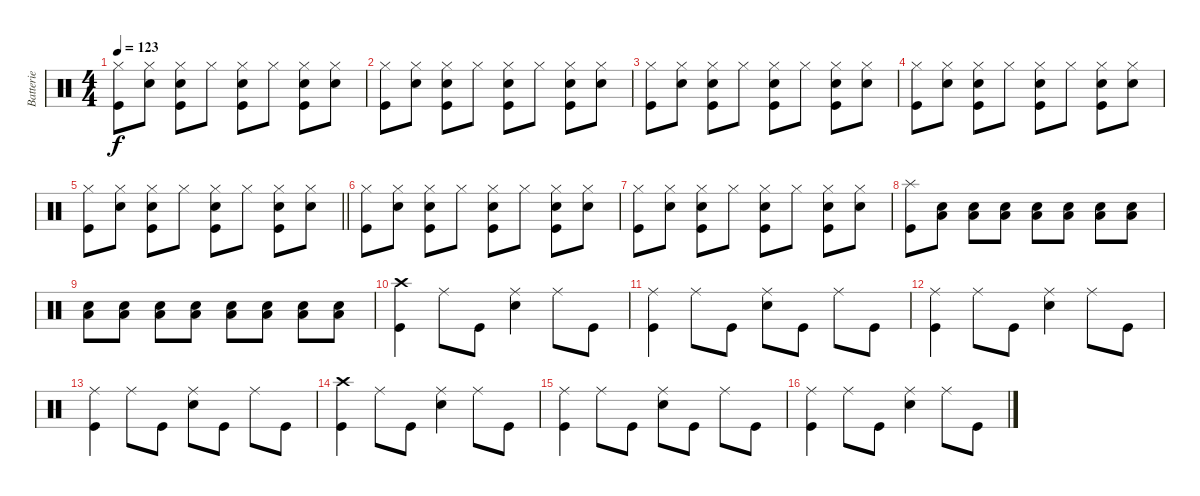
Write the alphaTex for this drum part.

\track ("Batterie" "Batterie") {instrument percussion}
\staff {score}
\articulation defaults
\ts (4 4)
\tempo 123
\clef neutral
\ks c
("Hi-Hat (closed)" "Kick (hit)").8{dy f} ("Snare (hit) 2" "Hi-Hat (closed)").8 ("Hi-Hat (closed)" "Snare (hit) 2" "Kick (hit)").8 "Hi-Hat (closed)".8 ("Snare (hit) 2" "Kick (hit)" "Hi-Hat (closed)").8 "Hi-Hat (closed)".8 ("Hi-Hat (closed)" "Kick (hit)" "Snare (hit) 2").8 ("Hi-Hat (closed)" "Snare (hit) 2").8 |
("Hi-Hat (closed)" "Kick (hit)").8 ("Snare (hit) 2" "Hi-Hat (closed)").8 ("Hi-Hat (closed)" "Snare (hit) 2" "Kick (hit)").8 "Hi-Hat (closed)".8 ("Snare (hit) 2" "Kick (hit)" "Hi-Hat (closed)").8 "Hi-Hat (closed)".8 ("Hi-Hat (closed)" "Kick (hit)" "Snare (hit) 2").8 ("Hi-Hat (closed)" "Snare (hit) 2").8 |
("Hi-Hat (closed)" "Kick (hit)").8 ("Snare (hit) 2" "Hi-Hat (closed)").8 ("Hi-Hat (closed)" "Snare (hit) 2" "Kick (hit)").8 "Hi-Hat (closed)".8 ("Snare (hit) 2" "Kick (hit)" "Hi-Hat (closed)").8 "Hi-Hat (closed)".8 ("Hi-Hat (closed)" "Kick (hit)" "Snare (hit) 2").8 ("Hi-Hat (closed)" "Snare (hit) 2").8 |
("Hi-Hat (closed)" "Kick (hit)").8 ("Snare (hit) 2" "Hi-Hat (closed)").8 ("Hi-Hat (closed)" "Snare (hit) 2" "Kick (hit)").8 "Hi-Hat (closed)".8 ("Snare (hit) 2" "Kick (hit)" "Hi-Hat (closed)").8 "Hi-Hat (closed)".8 ("Hi-Hat (closed)" "Kick (hit)" "Snare (hit) 2").8 ("Hi-Hat (closed)" "Snare (hit) 2").8 |
\barLineRight lightlight
("Hi-Hat (closed)" "Kick (hit)").8 ("Snare (hit) 2" "Hi-Hat (closed)").8 ("Hi-Hat (closed)" "Snare (hit) 2" "Kick (hit)").8 "Hi-Hat (closed)".8 ("Snare (hit) 2" "Kick (hit)" "Hi-Hat (closed)").8 "Hi-Hat (closed)".8 ("Hi-Hat (closed)" "Kick (hit)" "Snare (hit) 2").8 ("Hi-Hat (closed)" "Snare (hit) 2").8 |
("Hi-Hat (closed)" "Kick (hit)").8 ("Snare (hit) 2" "Hi-Hat (closed)").8 ("Hi-Hat (closed)" "Snare (hit) 2" "Kick (hit)").8 "Hi-Hat (closed)".8 ("Snare (hit) 2" "Kick (hit)" "Hi-Hat (closed)").8 "Hi-Hat (closed)".8 ("Hi-Hat (closed)" "Kick (hit)" "Snare (hit) 2").8 ("Hi-Hat (closed)" "Snare (hit) 2").8 |
("Hi-Hat (closed)" "Kick (hit)").8 ("Snare (hit) 2" "Hi-Hat (closed)").8 ("Hi-Hat (closed)" "Snare (hit) 2" "Kick (hit)").8 "Hi-Hat (closed)".8 ("Snare (hit) 2" "Kick (hit)" "Hi-Hat (closed)").8 "Hi-Hat (closed)".8 ("Hi-Hat (closed)" "Kick (hit)" "Snare (hit) 2").8 ("Hi-Hat (closed)" "Snare (hit) 2").8 |
("Kick (hit)" "Splash (hit)").8 ("Low Floor Tom (hit)" "Snare (hit) 2").8 ("Low Floor Tom (hit)" "Snare (hit) 2").8 ("Low Floor Tom (hit)" "Snare (hit) 2").8 ("Low Floor Tom (hit)" "Snare (hit) 2").8 ("Low Floor Tom (hit)" "Snare (hit) 2").8 ("Low Floor Tom (hit)" "Snare (hit) 2").8 ("Low Floor Tom (hit)" "Snare (hit) 2").8 |
("Low Floor Tom (hit)" "Snare (hit) 2").8 ("Low Floor Tom (hit)" "Snare (hit) 2").8 ("Low Floor Tom (hit)" "Snare (hit) 2").8 ("Low Floor Tom (hit)" "Snare (hit) 2").8 ("Low Floor Tom (hit)" "Snare (hit) 2").8 ("Low Floor Tom (hit)" "Snare (hit) 2").8 ("Low Floor Tom (hit)" "Snare (hit) 2").8 ("Low Floor Tom (hit)" "Snare (hit) 2").8 |
("Kick (hit)" "Crash high (hit)").4 "Ride (middle)".8 "Kick (hit)".8 ("Ride (middle)" "Snare (hit) 2").4 "Ride (middle)".8 "Kick (hit)".8 |
("Ride (middle)" "Kick (hit)").4 "Ride (middle)".8 "Kick (hit)".8 ("Snare (hit) 2" "Ride (middle)").8 "Kick (hit)".8 "Ride (middle)".8 "Kick (hit)".8 |
("Kick (hit)" "Ride (middle)").4 "Ride (middle)".8 "Kick (hit)".8 ("Ride (middle)" "Snare (hit) 2").4 "Ride (middle)".8 "Kick (hit)".8 |
("Ride (middle)" "Kick (hit)").4 "Ride (middle)".8 "Kick (hit)".8 ("Snare (hit) 2" "Ride (middle)").8 "Kick (hit)".8 "Ride (middle)".8 "Kick (hit)".8 |
("Kick (hit)" "Crash high (hit)").4 "Ride (middle)".8 "Kick (hit)".8 ("Ride (middle)" "Snare (hit) 2").4 "Ride (middle)".8 "Kick (hit)".8 |
("Ride (middle)" "Kick (hit)").4 "Ride (middle)".8 "Kick (hit)".8 ("Snare (hit) 2" "Ride (middle)").8 "Kick (hit)".8 "Ride (middle)".8 "Kick (hit)".8 |
("Kick (hit)" "Ride (middle)").4 "Ride (middle)".8 "Kick (hit)".8 ("Ride (middle)" "Snare (hit) 2").4 "Ride (middle)".8 "Kick (hit)".8
